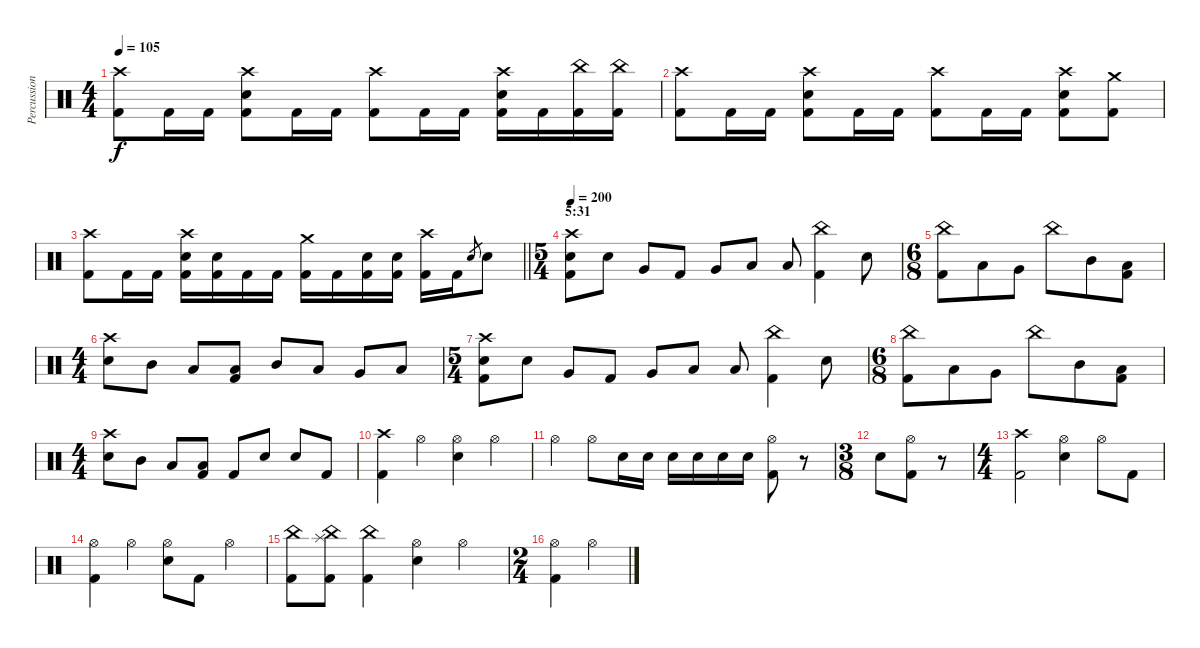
\track ("Percussion" "Percussion") {instrument percussion}
\staff {score}
\articulation defaults
\ts (4 4)
\tempo 105
\clef neutral
\ks c
("Crash high (hit)" "Kick (hit) 2").8{dy f} "Kick (hit) 2".16 "Kick (hit) 2".16 ("Kick (hit) 2" "Crash high (hit)" "Electric Snare (hit)").8 "Kick (hit) 2".16 "Kick (hit) 2".16 ("Kick (hit) 2" "Crash high (hit)").8 "Kick (hit) 2".16 "Kick (hit) 2".16 ("Kick (hit) 2" "Crash high (hit)" "Electric Snare (hit)").16 "Kick (hit) 2".16 ("Kick (hit) 2" "China (hit)").16 ("Kick (hit) 2" "China (hit)").16 |
("Crash high (hit)" "Kick (hit) 2").8 "Kick (hit) 2".16 "Kick (hit) 2".16 ("Kick (hit) 2" "Crash high (hit)" "Electric Snare (hit)").8 "Kick (hit) 2".16 "Kick (hit) 2".16 ("Kick (hit) 2" "Crash high (hit)").8 "Kick (hit) 2".16 "Kick (hit) 2".16 ("Kick (hit) 2" "Crash high (hit)" "Electric Snare (hit)").8 ("Kick (hit) 2" "Crash medium (hit)").8 |
\barLineRight lightlight
("Kick (hit) 2" "Crash high (hit)").8 "Kick (hit) 2".16 "Kick (hit) 2".16 ("Kick (hit) 2" "Crash high (hit)" "Electric Snare (hit)").16 ("Kick (hit) 2" "Electric Snare (hit)").16 "Kick (hit) 2".16 "Kick (hit) 2".16 ("Kick (hit) 2" "Crash medium (hit)").16 "Kick (hit) 2".16 ("Kick (hit) 2" "Electric Snare (hit)").16 ("Kick (hit) 2" "Electric Snare (hit)").16 ("Kick (hit) 2" "Crash high (hit)").16 "Kick (hit) 2".16 "Electric Snare (hit)".8{gr} "Electric Snare (hit)".8 |
\ts (5 4)
\section ("" "5:31")
\tempo 200
("Crash high (hit)" "Kick (hit) 2" "Electric Snare (hit)").8 "Electric Snare (hit)".8 "Very Low Tom (hit)".8 "Kick (hit) 2".8 "Very Low Tom (hit)".8 "Low Floor Tom (hit)".8 "Low Floor Tom (hit)".8 ("Kick (hit) 2" "China (hit)").4 "Electric Snare (hit)".8 |
\ts (6 8)
("China (hit)" "Kick (hit) 2").8 "Low Tom (hit)".8 "Very Low Tom (hit)".8 "China (hit)".8 "Mid Tom (hit)".8 ("Kick (hit) 2" "Low Tom (hit)").8 |
\ts (4 4)
("Electric Snare (hit)" "Crash high (hit)").8 "Mid Tom (hit)".8 "Low Tom (hit)".8 ("Kick (hit) 2" "Low Floor Tom (hit)").8 "Mid Tom (hit)".8 "Low Tom (hit)".8 "Very Low Tom (hit)".8 "Low Floor Tom (hit)".8 |
\ts (5 4)
("Crash high (hit)" "Kick (hit) 2" "Electric Snare (hit)").8 "Electric Snare (hit)".8 "Very Low Tom (hit)".8 "Kick (hit) 2".8 "Very Low Tom (hit)".8 "Low Floor Tom (hit)".8 "Low Floor Tom (hit)".8 ("Kick (hit) 2" "China (hit)").4 "Electric Snare (hit)".8 |
\ts (6 8)
("China (hit)" "Kick (hit) 2").8 "Low Tom (hit)".8 "Very Low Tom (hit)".8 "China (hit)".8 "Mid Tom (hit)".8 ("Kick (hit) 2" "Low Tom (hit)").8 |
\ts (4 4)
("Electric Snare (hit)" "Crash high (hit)").8 "Mid Tom (hit)".8 "Low Tom (hit)".8 ("Kick (hit) 2" "Low Floor Tom (hit)").8 "Kick (hit) 2".8 "Electric Snare (hit)".8 "Electric Snare (hit)".8 "Kick (hit) 2".8 |
("Crash high (hit)" "Kick (hit) 2").4 "Hi-Hat (open)".4 ("Hi-Hat (open)" "Electric Snare (hit)").4 "Hi-Hat (open)".4 |
"Hi-Hat (open)".4 "Hi-Hat (open)".8 "Electric Snare (hit)".16 "Electric Snare (hit)".16 "Electric Snare (hit)".16 "Electric Snare (hit)".16 "Electric Snare (hit)".16 "Electric Snare (hit)".16 ("Hi-Hat (open)" "Kick (hit) 2").8 r.8{volume 0} |
\ts (3 8)
"Electric Snare (hit)".8{volume 13} ("Hi-Hat (open)" "Kick (hit) 2").8 r.8{volume 0} |
\ts (4 4)
("Crash high (hit)" "Kick (hit) 2").2{volume 13} ("Hi-Hat (open)" "Electric Snare (hit)").4 "Hi-Hat (open)".8 "Kick (hit) 2".8 |
("Kick (hit) 2" "Hi-Hat (open)").4 "Hi-Hat (open)".4 ("Hi-Hat (open)" "Electric Snare (hit)").8 "Kick (hit) 2".8 "Hi-Hat (open)".4 |
("Kick (hit) 2" "China (hit)").8 ("Kick (hit) 2" "China (hit)" "Splash (hit)").8 ("Kick (hit) 2" "China (hit)").4 ("Hi-Hat (open)" "Electric Snare (hit)").4 "Hi-Hat (open)".4 |
\ts (2 4)
("Hi-Hat (open)" "Kick (hit) 2").4 "Hi-Hat (open)".4
